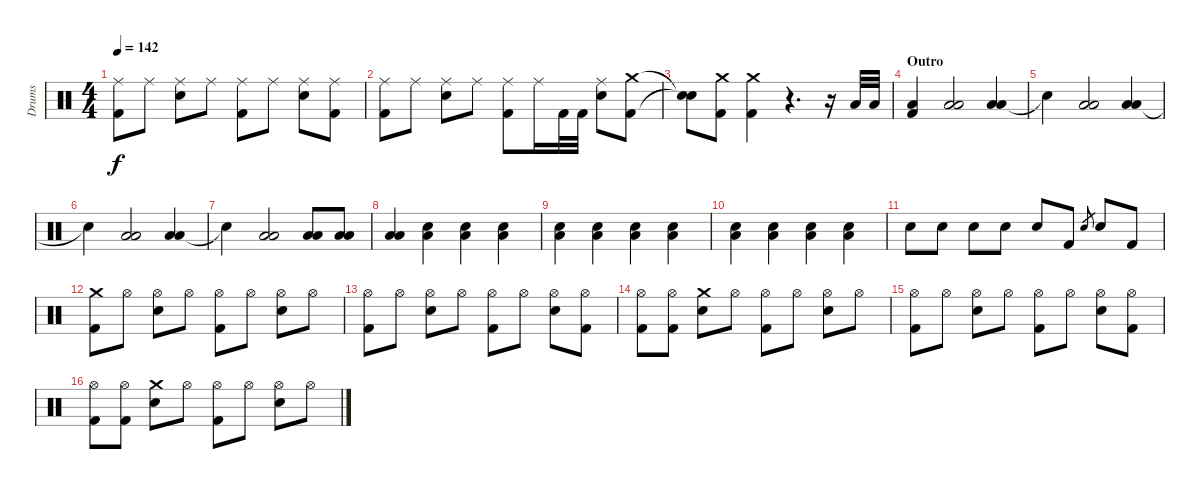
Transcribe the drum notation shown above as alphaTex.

\track ("Drums" "Drums") {instrument percussion}
\staff {score}
\articulation defaults
\ts (4 4)
\tempo 142
\clef neutral
\ks c
("Ride (middle)" "Kick (hit) 2").8{dy f} "Ride (middle)".8 ("Ride (middle)" "Snare (hit) 2").8 "Ride (middle)".8 ("Ride (middle)" "Kick (hit) 2").8 "Ride (middle)".8 ("Ride (middle)" "Snare (hit) 2").8 ("Ride (middle)" "Kick (hit) 2").8 |
("Ride (middle)" "Kick (hit) 2").8 "Ride (middle)".8 ("Ride (middle)" "Snare (hit) 2").8 "Ride (middle)".8 ("Ride (middle)" "Kick (hit) 2").8 "Ride (middle)".16 "Kick (hit) 2".32 "Kick (hit) 2".32 ("Ride (middle)" "Snare (hit) 2").8 ("Crash medium (hit)" "Kick (hit) 2").8 |
("Snare (hit)"{t} "Snare (hit)"{t}).8 ("Crash medium (hit)" "Kick (hit) 2").8 ("Crash medium (hit)" "Kick (hit) 2").4 r.4{d} r.16 "Low Floor Tom (hit)".32 "Low Floor Tom (hit)".32 |
\section ("" "Outro")
("Low Floor Tom (hit)" "Kick (hit) 2").4 ("Low Tom (hit)" "Low Floor Tom (hit)").2 ("Low Tom (hit)" "Low Floor Tom (hit)").4 |
"Snare (hit)"{t}.4 ("Low Tom (hit)" "Low Floor Tom (hit)").2 ("Low Tom (hit)" "Low Floor Tom (hit)").4 |
"Snare (hit)"{t}.4 ("Low Tom (hit)" "Low Floor Tom (hit)").2 ("Low Tom (hit)" "Low Floor Tom (hit)").4 |
"Snare (hit)"{t}.4 ("Low Tom (hit)" "Low Floor Tom (hit)").2 ("Low Tom (hit)" "Low Floor Tom (hit)").8 ("Low Tom (hit)" "Low Floor Tom (hit)").8 |
("Low Tom (hit)" "Low Floor Tom (hit)").4 ("Snare (hit) 2" "Low Tom (hit)").4 ("Snare (hit) 2" "Low Tom (hit)").4 ("Snare (hit) 2" "Low Tom (hit)").4 |
("Snare (hit) 2" "Low Tom (hit)").4 ("Snare (hit) 2" "Low Tom (hit)").4 ("Snare (hit) 2" "Low Tom (hit)").4 ("Snare (hit) 2" "Low Tom (hit)").4 |
("Snare (hit) 2" "Low Tom (hit)").4 ("Snare (hit) 2" "Low Tom (hit)").4 ("Snare (hit) 2" "Low Tom (hit)").4 ("Snare (hit) 2" "Low Tom (hit)").4 |
"Snare (hit) 2".8 "Snare (hit) 2".8 "Snare (hit) 2".8 "Snare (hit) 2".8 "Snare (hit) 2".8 "Kick (hit) 2".8 "Snare (hit) 2".8{gr} "Snare (hit) 2".8 "Kick (hit) 2".8 |
("Crash medium (hit)" "Kick (hit) 2").8 "Hi-Hat (open)".8 ("Hi-Hat (open)" "Snare (hit) 2").8 "Hi-Hat (open)".8 ("Hi-Hat (open)" "Kick (hit) 2").8 "Hi-Hat (open)".8 ("Hi-Hat (open)" "Snare (hit) 2").8 "Hi-Hat (open)".8 |
("Hi-Hat (open)" "Kick (hit) 2").8 "Hi-Hat (open)".8 ("Hi-Hat (open)" "Snare (hit) 2").8 "Hi-Hat (open)".8 ("Hi-Hat (open)" "Kick (hit) 2").8 "Hi-Hat (open)".8 ("Hi-Hat (open)" "Snare (hit) 2").8 ("Hi-Hat (open)" "Kick (hit) 2").8 |
("Hi-Hat (open)" "Kick (hit) 2").8 ("Hi-Hat (open)" "Kick (hit) 2").8 ("Crash medium (hit)" "Snare (hit) 2").8 "Hi-Hat (open)".8 ("Hi-Hat (open)" "Kick (hit) 2").8 "Hi-Hat (open)".8 ("Hi-Hat (open)" "Snare (hit) 2").8 "Hi-Hat (open)".8 |
("Hi-Hat (open)" "Kick (hit) 2").8 "Hi-Hat (open)".8 ("Hi-Hat (open)" "Snare (hit) 2").8 "Hi-Hat (open)".8 ("Hi-Hat (open)" "Kick (hit) 2").8 "Hi-Hat (open)".8 ("Hi-Hat (open)" "Snare (hit) 2").8 ("Hi-Hat (open)" "Kick (hit) 2").8 |
("Hi-Hat (open)" "Kick (hit) 2").8 ("Hi-Hat (open)" "Kick (hit) 2").8 ("Crash medium (hit)" "Snare (hit) 2").8 "Hi-Hat (open)".8 ("Hi-Hat (open)" "Kick (hit) 2").8 "Hi-Hat (open)".8 ("Hi-Hat (open)" "Snare (hit) 2").8 "Hi-Hat (open)".8
